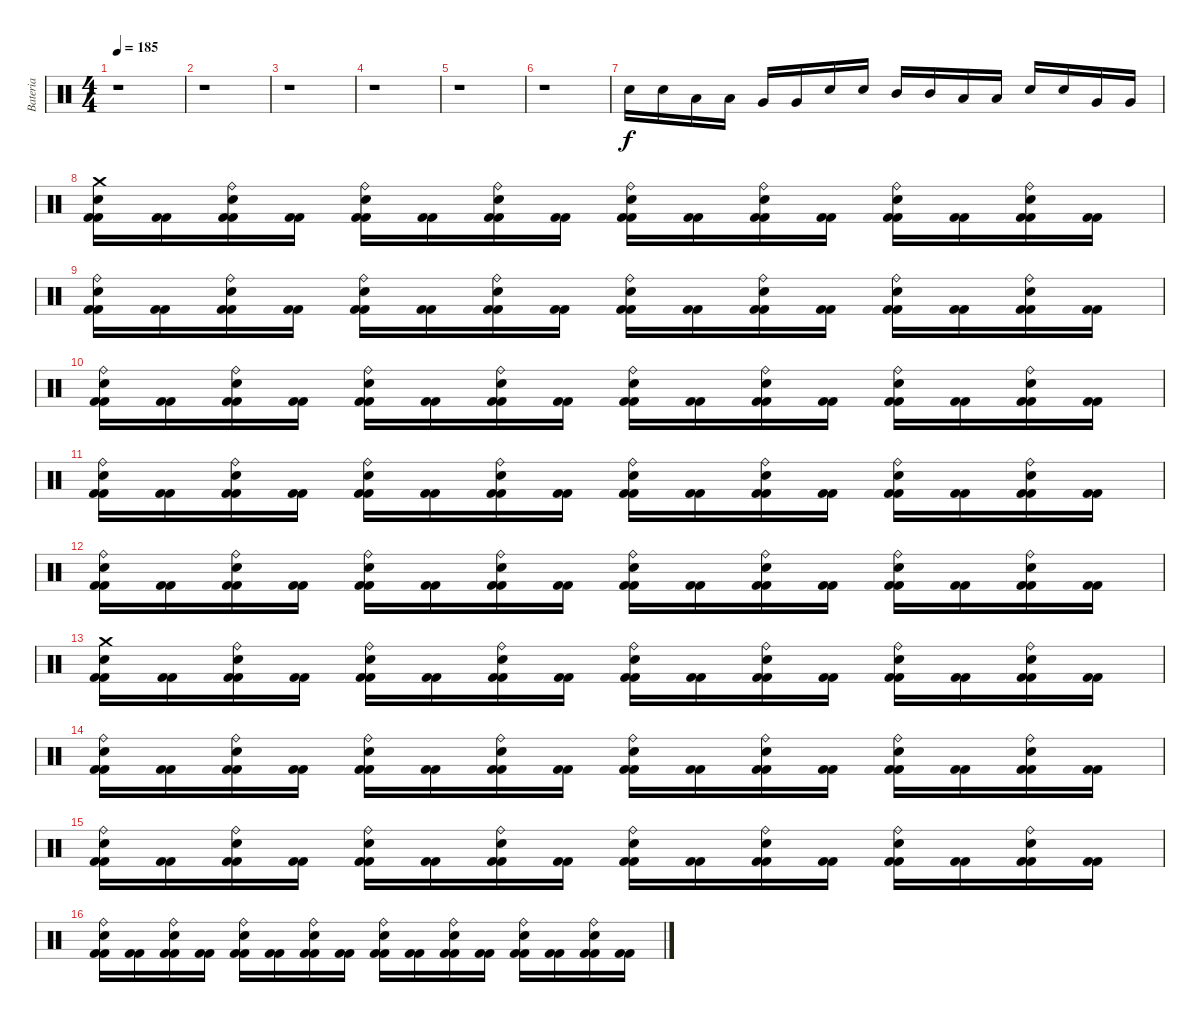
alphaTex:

\track ("Bateria" "Bateria") {instrument percussion}
\staff {score}
\articulation defaults
\ts (4 4)
\tempo 185
\clef neutral
\ks c
r.1{dy f} |
r.1 |
r.1 |
r.1 |
r.1 |
r.1 |
"Electric Snare (hit)".16 "Electric Snare (hit)".16 "Low Tom (hit)".16 "Low Tom (hit)".16 "Very Low Tom (hit)".16 "Very Low Tom (hit)".16 "Electric Snare (hit)".16 "Electric Snare (hit)".16 "Mid Tom (hit)".16 "Mid Tom (hit)".16 "Low Tom (hit)".16 "Low Tom (hit)".16 "Electric Snare (hit)".16 "Electric Snare (hit)".16 "Very Low Tom (hit)".16 "Very Low Tom (hit)".16 |
("Kick (hit) 2" "Kick (hit) 2" "Electric Snare (hit)" "Crash medium (hit)").16 ("Kick (hit) 2" "Kick (hit) 2").16 ("Kick (hit) 2" "Kick (hit) 2" "Electric Snare (hit)" "Ride (bell)").16 ("Kick (hit) 2" "Kick (hit) 2").16 ("Kick (hit) 2" "Kick (hit) 2" "Electric Snare (hit)" "Ride (bell)").16 ("Kick (hit) 2" "Kick (hit) 2").16 ("Kick (hit) 2" "Kick (hit) 2" "Electric Snare (hit)" "Ride (bell)").16 ("Kick (hit) 2" "Kick (hit) 2").16 ("Kick (hit) 2" "Kick (hit) 2" "Electric Snare (hit)" "Ride (bell)").16 ("Kick (hit) 2" "Kick (hit) 2").16 ("Kick (hit) 2" "Kick (hit) 2" "Ride (bell)" "Electric Snare (hit)").16 ("Kick (hit) 2" "Kick (hit) 2").16 ("Kick (hit) 2" "Kick (hit) 2" "Electric Snare (hit)" "Ride (bell)").16 ("Kick (hit) 2" "Kick (hit) 2").16 ("Kick (hit) 2" "Kick (hit) 2" "Ride (bell)" "Electric Snare (hit)").16 ("Kick (hit) 2" "Kick (hit) 2").16 |
("Kick (hit) 2" "Kick (hit) 2" "Electric Snare (hit)" "Ride (bell)").16 ("Kick (hit) 2" "Kick (hit) 2").16 ("Kick (hit) 2" "Kick (hit) 2" "Ride (bell)" "Electric Snare (hit)").16 ("Kick (hit) 2" "Kick (hit) 2").16 ("Kick (hit) 2" "Kick (hit) 2" "Electric Snare (hit)" "Ride (bell)").16 ("Kick (hit) 2" "Kick (hit) 2").16 ("Kick (hit) 2" "Kick (hit) 2" "Ride (bell)" "Electric Snare (hit)").16 ("Kick (hit) 2" "Kick (hit) 2").16 ("Kick (hit) 2" "Kick (hit) 2" "Electric Snare (hit)" "Ride (bell)").16 ("Kick (hit) 2" "Kick (hit) 2").16 ("Kick (hit) 2" "Kick (hit) 2" "Ride (bell)" "Electric Snare (hit)").16 ("Kick (hit) 2" "Kick (hit) 2").16 ("Kick (hit) 2" "Kick (hit) 2" "Electric Snare (hit)" "Ride (bell)").16 ("Kick (hit) 2" "Kick (hit) 2").16 ("Kick (hit) 2" "Kick (hit) 2" "Ride (bell)" "Electric Snare (hit)").16 ("Kick (hit) 2" "Kick (hit) 2").16 |
("Kick (hit) 2" "Kick (hit) 2" "Electric Snare (hit)" "Ride (bell)").16 ("Kick (hit) 2" "Kick (hit) 2").16 ("Kick (hit) 2" "Kick (hit) 2" "Ride (bell)" "Electric Snare (hit)").16 ("Kick (hit) 2" "Kick (hit) 2").16 ("Kick (hit) 2" "Kick (hit) 2" "Electric Snare (hit)" "Ride (bell)").16 ("Kick (hit) 2" "Kick (hit) 2").16 ("Kick (hit) 2" "Kick (hit) 2" "Ride (bell)" "Electric Snare (hit)").16 ("Kick (hit) 2" "Kick (hit) 2").16 ("Kick (hit) 2" "Kick (hit) 2" "Electric Snare (hit)" "Ride (bell)").16 ("Kick (hit) 2" "Kick (hit) 2").16 ("Kick (hit) 2" "Kick (hit) 2" "Ride (bell)" "Electric Snare (hit)").16 ("Kick (hit) 2" "Kick (hit) 2").16 ("Kick (hit) 2" "Kick (hit) 2" "Electric Snare (hit)" "Ride (bell)").16 ("Kick (hit) 2" "Kick (hit) 2").16 ("Kick (hit) 2" "Kick (hit) 2" "Ride (bell)" "Electric Snare (hit)").16 ("Kick (hit) 2" "Kick (hit) 2").16 |
("Kick (hit) 2" "Kick (hit) 2" "Electric Snare (hit)" "Ride (bell)").16 ("Kick (hit) 2" "Kick (hit) 2").16 ("Kick (hit) 2" "Kick (hit) 2" "Ride (bell)" "Electric Snare (hit)").16 ("Kick (hit) 2" "Kick (hit) 2").16 ("Kick (hit) 2" "Kick (hit) 2" "Electric Snare (hit)" "Ride (bell)").16 ("Kick (hit) 2" "Kick (hit) 2").16 ("Kick (hit) 2" "Kick (hit) 2" "Ride (bell)" "Electric Snare (hit)").16 ("Kick (hit) 2" "Kick (hit) 2").16 ("Kick (hit) 2" "Kick (hit) 2" "Electric Snare (hit)" "Ride (bell)").16 ("Kick (hit) 2" "Kick (hit) 2").16 ("Kick (hit) 2" "Kick (hit) 2" "Ride (bell)" "Electric Snare (hit)").16 ("Kick (hit) 2" "Kick (hit) 2").16 ("Kick (hit) 2" "Kick (hit) 2" "Electric Snare (hit)" "Ride (bell)").16 ("Kick (hit) 2" "Kick (hit) 2").16 ("Kick (hit) 2" "Kick (hit) 2" "Ride (bell)" "Electric Snare (hit)").16 ("Kick (hit) 2" "Kick (hit) 2").16 |
("Kick (hit) 2" "Kick (hit) 2" "Electric Snare (hit)" "Ride (bell)").16 ("Kick (hit) 2" "Kick (hit) 2").16 ("Kick (hit) 2" "Kick (hit) 2" "Ride (bell)" "Electric Snare (hit)").16 ("Kick (hit) 2" "Kick (hit) 2").16 ("Kick (hit) 2" "Kick (hit) 2" "Electric Snare (hit)" "Ride (bell)").16 ("Kick (hit) 2" "Kick (hit) 2").16 ("Kick (hit) 2" "Kick (hit) 2" "Ride (bell)" "Electric Snare (hit)").16 ("Kick (hit) 2" "Kick (hit) 2").16 ("Kick (hit) 2" "Kick (hit) 2" "Electric Snare (hit)" "Ride (bell)").16 ("Kick (hit) 2" "Kick (hit) 2").16 ("Kick (hit) 2" "Kick (hit) 2" "Ride (bell)" "Electric Snare (hit)").16 ("Kick (hit) 2" "Kick (hit) 2").16 ("Kick (hit) 2" "Kick (hit) 2" "Electric Snare (hit)" "Ride (bell)").16 ("Kick (hit) 2" "Kick (hit) 2").16 ("Kick (hit) 2" "Kick (hit) 2" "Ride (bell)" "Electric Snare (hit)").16 ("Kick (hit) 2" "Kick (hit) 2").16 |
("Kick (hit) 2" "Kick (hit) 2" "Electric Snare (hit)" "Crash medium (hit)").16 ("Kick (hit) 2" "Kick (hit) 2").16 ("Kick (hit) 2" "Kick (hit) 2" "Ride (bell)" "Electric Snare (hit)").16 ("Kick (hit) 2" "Kick (hit) 2").16 ("Kick (hit) 2" "Kick (hit) 2" "Electric Snare (hit)" "Ride (bell)").16 ("Kick (hit) 2" "Kick (hit) 2").16 ("Kick (hit) 2" "Kick (hit) 2" "Ride (bell)" "Electric Snare (hit)").16 ("Kick (hit) 2" "Kick (hit) 2").16 ("Kick (hit) 2" "Kick (hit) 2" "Electric Snare (hit)" "Ride (bell)").16 ("Kick (hit) 2" "Kick (hit) 2").16 ("Kick (hit) 2" "Kick (hit) 2" "Ride (bell)" "Electric Snare (hit)").16 ("Kick (hit) 2" "Kick (hit) 2").16 ("Kick (hit) 2" "Kick (hit) 2" "Electric Snare (hit)" "Ride (bell)").16 ("Kick (hit) 2" "Kick (hit) 2").16 ("Kick (hit) 2" "Kick (hit) 2" "Ride (bell)" "Electric Snare (hit)").16 ("Kick (hit) 2" "Kick (hit) 2").16 |
("Kick (hit) 2" "Kick (hit) 2" "Electric Snare (hit)" "Ride (bell)").16 ("Kick (hit) 2" "Kick (hit) 2").16 ("Kick (hit) 2" "Kick (hit) 2" "Ride (bell)" "Electric Snare (hit)").16 ("Kick (hit) 2" "Kick (hit) 2").16 ("Kick (hit) 2" "Kick (hit) 2" "Electric Snare (hit)" "Ride (bell)").16 ("Kick (hit) 2" "Kick (hit) 2").16 ("Kick (hit) 2" "Kick (hit) 2" "Ride (bell)" "Electric Snare (hit)").16 ("Kick (hit) 2" "Kick (hit) 2").16 ("Kick (hit) 2" "Kick (hit) 2" "Electric Snare (hit)" "Ride (bell)").16 ("Kick (hit) 2" "Kick (hit) 2").16 ("Kick (hit) 2" "Kick (hit) 2" "Ride (bell)" "Electric Snare (hit)").16 ("Kick (hit) 2" "Kick (hit) 2").16 ("Kick (hit) 2" "Kick (hit) 2" "Electric Snare (hit)" "Ride (bell)").16 ("Kick (hit) 2" "Kick (hit) 2").16 ("Kick (hit) 2" "Kick (hit) 2" "Ride (bell)" "Electric Snare (hit)").16 ("Kick (hit) 2" "Kick (hit) 2").16 |
("Kick (hit) 2" "Kick (hit) 2" "Electric Snare (hit)" "Ride (bell)").16 ("Kick (hit) 2" "Kick (hit) 2").16 ("Kick (hit) 2" "Kick (hit) 2" "Ride (bell)" "Electric Snare (hit)").16 ("Kick (hit) 2" "Kick (hit) 2").16 ("Kick (hit) 2" "Kick (hit) 2" "Electric Snare (hit)" "Ride (bell)").16 ("Kick (hit) 2" "Kick (hit) 2").16 ("Kick (hit) 2" "Kick (hit) 2" "Ride (bell)" "Electric Snare (hit)").16 ("Kick (hit) 2" "Kick (hit) 2").16 ("Kick (hit) 2" "Kick (hit) 2" "Electric Snare (hit)" "Ride (bell)").16 ("Kick (hit) 2" "Kick (hit) 2").16 ("Kick (hit) 2" "Kick (hit) 2" "Ride (bell)" "Electric Snare (hit)").16 ("Kick (hit) 2" "Kick (hit) 2").16 ("Kick (hit) 2" "Kick (hit) 2" "Electric Snare (hit)" "Ride (bell)").16 ("Kick (hit) 2" "Kick (hit) 2").16 ("Kick (hit) 2" "Kick (hit) 2" "Ride (bell)" "Electric Snare (hit)").16 ("Kick (hit) 2" "Kick (hit) 2").16 |
("Kick (hit) 2" "Kick (hit) 2" "Electric Snare (hit)" "Ride (bell)").16 ("Kick (hit) 2" "Kick (hit) 2").16 ("Kick (hit) 2" "Kick (hit) 2" "Ride (bell)" "Electric Snare (hit)").16 ("Kick (hit) 2" "Kick (hit) 2").16 ("Kick (hit) 2" "Kick (hit) 2" "Electric Snare (hit)" "Ride (bell)").16 ("Kick (hit) 2" "Kick (hit) 2").16 ("Kick (hit) 2" "Kick (hit) 2" "Ride (bell)" "Electric Snare (hit)").16 ("Kick (hit) 2" "Kick (hit) 2").16 ("Kick (hit) 2" "Kick (hit) 2" "Electric Snare (hit)" "Ride (bell)").16 ("Kick (hit) 2" "Kick (hit) 2").16 ("Kick (hit) 2" "Kick (hit) 2" "Ride (bell)" "Electric Snare (hit)").16 ("Kick (hit) 2" "Kick (hit) 2").16 ("Kick (hit) 2" "Kick (hit) 2" "Electric Snare (hit)" "Ride (bell)").16 ("Kick (hit) 2" "Kick (hit) 2").16 ("Kick (hit) 2" "Kick (hit) 2" "Ride (bell)" "Electric Snare (hit)").16 ("Kick (hit) 2" "Kick (hit) 2").16
